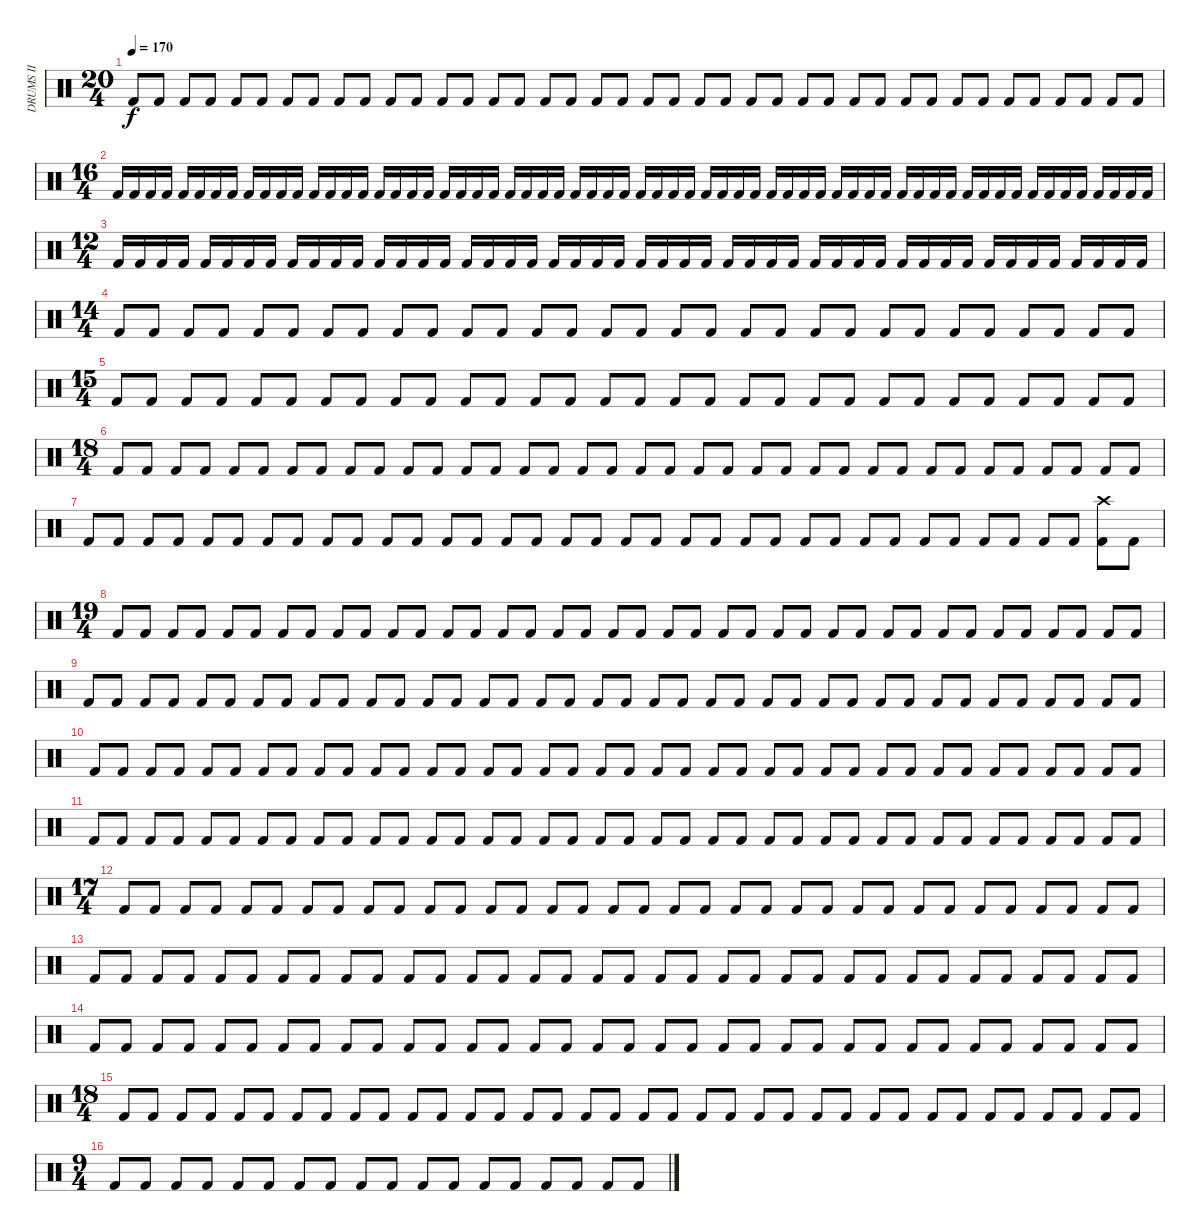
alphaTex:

\track ("DRUMS II" "DRUMS II") {instrument percussion}
\staff {score}
\articulation defaults
\ts (20 4)
\tempo 170
\clef neutral
\ks c "Kick (hit) 2".8{dy f} "Kick (hit) 2".8 "Kick (hit) 2".8 "Kick (hit) 2".8 "Kick (hit) 2".8 "Kick (hit) 2".8 "Kick (hit) 2".8 "Kick (hit) 2".8 "Kick (hit) 2".8 "Kick (hit) 2".8 "Kick (hit) 2".8 "Kick (hit) 2".8 "Kick (hit) 2".8 "Kick (hit) 2".8 "Kick (hit) 2".8 "Kick (hit) 2".8 "Kick (hit) 2".8 "Kick (hit) 2".8 "Kick (hit) 2".8 "Kick (hit) 2".8 "Kick (hit) 2".8 "Kick (hit) 2".8 "Kick (hit) 2".8 "Kick (hit) 2".8 "Kick (hit) 2".8 "Kick (hit) 2".8 "Kick (hit) 2".8 "Kick (hit) 2".8 "Kick (hit) 2".8 "Kick (hit) 2".8 "Kick (hit) 2".8 "Kick (hit) 2".8 "Kick (hit) 2".8 "Kick (hit) 2".8 "Kick (hit) 2".8 "Kick (hit) 2".8 "Kick (hit) 2".8 "Kick (hit) 2".8 "Kick (hit) 2".8 "Kick (hit) 2".8
|
\ts (16 4)
"Kick (hit) 2".16 "Kick (hit) 2".16 "Kick (hit) 2".16 "Kick (hit) 2".16 "Kick (hit) 2".16 "Kick (hit) 2".16 "Kick (hit) 2".16 "Kick (hit) 2".16 "Kick (hit) 2".16 "Kick (hit) 2".16 "Kick (hit) 2".16 "Kick (hit) 2".16 "Kick (hit) 2".16 "Kick (hit) 2".16 "Kick (hit) 2".16 "Kick (hit) 2".16 "Kick (hit) 2".16 "Kick (hit) 2".16 "Kick (hit) 2".16 "Kick (hit) 2".16 "Kick (hit) 2".16 "Kick (hit) 2".16 "Kick (hit) 2".16 "Kick (hit) 2".16 "Kick (hit) 2".16 "Kick (hit) 2".16 "Kick (hit) 2".16 "Kick (hit) 2".16 "Kick (hit) 2".16 "Kick (hit) 2".16 "Kick (hit) 2".16 "Kick (hit) 2".16 "Kick (hit) 2".16 "Kick (hit) 2".16 "Kick (hit) 2".16 "Kick (hit) 2".16 "Kick (hit) 2".16 "Kick (hit) 2".16 "Kick (hit) 2".16 "Kick (hit) 2".16 "Kick (hit) 2".16 "Kick (hit) 2".16 "Kick (hit) 2".16 "Kick (hit) 2".16 "Kick (hit) 2".16 "Kick (hit) 2".16 "Kick (hit) 2".16 "Kick (hit) 2".16 "Kick (hit) 2".16 "Kick (hit) 2".16 "Kick (hit) 2".16 "Kick (hit) 2".16 "Kick (hit) 2".16 "Kick (hit) 2".16 "Kick (hit) 2".16 "Kick (hit) 2".16 "Kick (hit) 2".16 "Kick (hit) 2".16 "Kick (hit) 2".16 "Kick (hit) 2".16 "Kick (hit) 2".16 "Kick (hit) 2".16 "Kick (hit) 2".16 "Kick (hit) 2".16 |
\ts (12 4)
"Kick (hit) 2".16 "Kick (hit) 2".16 "Kick (hit) 2".16 "Kick (hit) 2".16 "Kick (hit) 2".16 "Kick (hit) 2".16 "Kick (hit) 2".16 "Kick (hit) 2".16 "Kick (hit) 2".16 "Kick (hit) 2".16 "Kick (hit) 2".16 "Kick (hit) 2".16 "Kick (hit) 2".16 "Kick (hit) 2".16 "Kick (hit) 2".16 "Kick (hit) 2".16 "Kick (hit) 2".16 "Kick (hit) 2".16 "Kick (hit) 2".16 "Kick (hit) 2".16 "Kick (hit) 2".16 "Kick (hit) 2".16 "Kick (hit) 2".16 "Kick (hit) 2".16 "Kick (hit) 2".16 "Kick (hit) 2".16 "Kick (hit) 2".16 "Kick (hit) 2".16 "Kick (hit) 2".16 "Kick (hit) 2".16 "Kick (hit) 2".16 "Kick (hit) 2".16 "Kick (hit) 2".16 "Kick (hit) 2".16 "Kick (hit) 2".16 "Kick (hit) 2".16 "Kick (hit) 2".16 "Kick (hit) 2".16 "Kick (hit) 2".16 "Kick (hit) 2".16 "Kick (hit) 2".16 "Kick (hit) 2".16 "Kick (hit) 2".16 "Kick (hit) 2".16 "Kick (hit) 2".16 "Kick (hit) 2".16 "Kick (hit) 2".16 "Kick (hit) 2".16 |
\ts (14 4)
"Kick (hit) 2".8 "Kick (hit) 2".8 "Kick (hit) 2".8 "Kick (hit) 2".8 "Kick (hit) 2".8 "Kick (hit) 2".8 "Kick (hit) 2".8 "Kick (hit) 2".8 "Kick (hit) 2".8 "Kick (hit) 2".8 "Kick (hit) 2".8 "Kick (hit) 2".8 "Kick (hit) 2".8 "Kick (hit) 2".8 "Kick (hit) 2".8 "Kick (hit) 2".8 "Kick (hit) 2".8 "Kick (hit) 2".8 "Kick (hit) 2".8 "Kick (hit) 2".8 "Kick (hit) 2".8 "Kick (hit) 2".8 "Kick (hit) 2".8 "Kick (hit) 2".8 "Kick (hit) 2".8 "Kick (hit) 2".8 "Kick (hit) 2".8 "Kick (hit) 2".8 "Kick (hit) 2".8 "Kick (hit) 2".8 |
\ts (15 4)
"Kick (hit) 2".8 "Kick (hit) 2".8 "Kick (hit) 2".8 "Kick (hit) 2".8 "Kick (hit) 2".8 "Kick (hit) 2".8 "Kick (hit) 2".8 "Kick (hit) 2".8 "Kick (hit) 2".8 "Kick (hit) 2".8 "Kick (hit) 2".8 "Kick (hit) 2".8 "Kick (hit) 2".8 "Kick (hit) 2".8 "Kick (hit) 2".8 "Kick (hit) 2".8 "Kick (hit) 2".8 "Kick (hit) 2".8 "Kick (hit) 2".8 "Kick (hit) 2".8 "Kick (hit) 2".8 "Kick (hit) 2".8 "Kick (hit) 2".8 "Kick (hit) 2".8 "Kick (hit) 2".8 "Kick (hit) 2".8 "Kick (hit) 2".8 "Kick (hit) 2".8 "Kick (hit) 2".8 "Kick (hit) 2".8 |
\ts (18 4)
"Kick (hit) 2".8 "Kick (hit) 2".8 "Kick (hit) 2".8 "Kick (hit) 2".8 "Kick (hit) 2".8 "Kick (hit) 2".8 "Kick (hit) 2".8 "Kick (hit) 2".8 "Kick (hit) 2".8 "Kick (hit) 2".8 "Kick (hit) 2".8 "Kick (hit) 2".8 "Kick (hit) 2".8 "Kick (hit) 2".8 "Kick (hit) 2".8 "Kick (hit) 2".8 "Kick (hit) 2".8 "Kick (hit) 2".8 "Kick (hit) 2".8 "Kick (hit) 2".8 "Kick (hit) 2".8 "Kick (hit) 2".8 "Kick (hit) 2".8 "Kick (hit) 2".8 "Kick (hit) 2".8 "Kick (hit) 2".8 "Kick (hit) 2".8 "Kick (hit) 2".8 "Kick (hit) 2".8 "Kick (hit) 2".8 "Kick (hit) 2".8 "Kick (hit) 2".8 "Kick (hit) 2".8 "Kick (hit) 2".8 "Kick (hit) 2".8 "Kick (hit) 2".8 |
"Kick (hit) 2".8 "Kick (hit) 2".8 "Kick (hit) 2".8 "Kick (hit) 2".8 "Kick (hit) 2".8 "Kick (hit) 2".8 "Kick (hit) 2".8 "Kick (hit) 2".8 "Kick (hit) 2".8 "Kick (hit) 2".8 "Kick (hit) 2".8 "Kick (hit) 2".8 "Kick (hit) 2".8 "Kick (hit) 2".8 "Kick (hit) 2".8 "Kick (hit) 2".8 "Kick (hit) 2".8 "Kick (hit) 2".8 "Kick (hit) 2".8 "Kick (hit) 2".8 "Kick (hit) 2".8 "Kick (hit) 2".8 "Kick (hit) 2".8 "Kick (hit) 2".8 "Kick (hit) 2".8 "Kick (hit) 2".8 "Kick (hit) 2".8 "Kick (hit) 2".8 "Kick (hit) 2".8 "Kick (hit) 2".8 "Kick (hit) 2".8 "Kick (hit) 2".8 "Kick (hit) 2".8 "Kick (hit) 2".8 ("Crash high (hit)" "Kick (hit) 2").8 "Kick (hit) 2".8 |
\ts (19 4)
"Kick (hit) 2".8 "Kick (hit) 2".8 "Kick (hit) 2".8 "Kick (hit) 2".8 "Kick (hit) 2".8 "Kick (hit) 2".8 "Kick (hit) 2".8 "Kick (hit) 2".8 "Kick (hit) 2".8 "Kick (hit) 2".8 "Kick (hit) 2".8 "Kick (hit) 2".8 "Kick (hit) 2".8 "Kick (hit) 2".8 "Kick (hit) 2".8 "Kick (hit) 2".8 "Kick (hit) 2".8 "Kick (hit) 2".8 "Kick (hit) 2".8 "Kick (hit) 2".8 "Kick (hit) 2".8 "Kick (hit) 2".8 "Kick (hit) 2".8 "Kick (hit) 2".8 "Kick (hit) 2".8 "Kick (hit) 2".8 "Kick (hit) 2".8 "Kick (hit) 2".8 "Kick (hit) 2".8 "Kick (hit) 2".8 "Kick (hit) 2".8 "Kick (hit) 2".8 "Kick (hit) 2".8 "Kick (hit) 2".8 "Kick (hit) 2".8 "Kick (hit) 2".8 "Kick (hit) 2".8 "Kick (hit) 2".8 |
"Kick (hit) 2".8 "Kick (hit) 2".8 "Kick (hit) 2".8 "Kick (hit) 2".8 "Kick (hit) 2".8 "Kick (hit) 2".8 "Kick (hit) 2".8 "Kick (hit) 2".8 "Kick (hit) 2".8 "Kick (hit) 2".8 "Kick (hit) 2".8 "Kick (hit) 2".8 "Kick (hit) 2".8 "Kick (hit) 2".8 "Kick (hit) 2".8 "Kick (hit) 2".8 "Kick (hit) 2".8 "Kick (hit) 2".8 "Kick (hit) 2".8 "Kick (hit) 2".8 "Kick (hit) 2".8 "Kick (hit) 2".8 "Kick (hit) 2".8 "Kick (hit) 2".8 "Kick (hit) 2".8 "Kick (hit) 2".8 "Kick (hit) 2".8 "Kick (hit) 2".8 "Kick (hit) 2".8 "Kick (hit) 2".8 "Kick (hit) 2".8 "Kick (hit) 2".8 "Kick (hit) 2".8 "Kick (hit) 2".8 "Kick (hit) 2".8 "Kick (hit) 2".8 "Kick (hit) 2".8 "Kick (hit) 2".8 |
"Kick (hit) 2".8 "Kick (hit) 2".8 "Kick (hit) 2".8 "Kick (hit) 2".8 "Kick (hit) 2".8 "Kick (hit) 2".8 "Kick (hit) 2".8 "Kick (hit) 2".8 "Kick (hit) 2".8 "Kick (hit) 2".8 "Kick (hit) 2".8 "Kick (hit) 2".8 "Kick (hit) 2".8 "Kick (hit) 2".8 "Kick (hit) 2".8 "Kick (hit) 2".8 "Kick (hit) 2".8 "Kick (hit) 2".8 "Kick (hit) 2".8 "Kick (hit) 2".8 "Kick (hit) 2".8 "Kick (hit) 2".8 "Kick (hit) 2".8 "Kick (hit) 2".8 "Kick (hit) 2".8 "Kick (hit) 2".8 "Kick (hit) 2".8 "Kick (hit) 2".8 "Kick (hit) 2".8 "Kick (hit) 2".8 "Kick (hit) 2".8 "Kick (hit) 2".8 "Kick (hit) 2".8 "Kick (hit) 2".8 "Kick (hit) 2".8 "Kick (hit) 2".8 "Kick (hit) 2".8 "Kick (hit) 2".8 |
"Kick (hit) 2".8 "Kick (hit) 2".8 "Kick (hit) 2".8 "Kick (hit) 2".8 "Kick (hit) 2".8 "Kick (hit) 2".8 "Kick (hit) 2".8 "Kick (hit) 2".8 "Kick (hit) 2".8 "Kick (hit) 2".8 "Kick (hit) 2".8 "Kick (hit) 2".8 "Kick (hit) 2".8 "Kick (hit) 2".8 "Kick (hit) 2".8 "Kick (hit) 2".8 "Kick (hit) 2".8 "Kick (hit) 2".8 "Kick (hit) 2".8 "Kick (hit) 2".8 "Kick (hit) 2".8 "Kick (hit) 2".8 "Kick (hit) 2".8 "Kick (hit) 2".8 "Kick (hit) 2".8 "Kick (hit) 2".8 "Kick (hit) 2".8 "Kick (hit) 2".8 "Kick (hit) 2".8 "Kick (hit) 2".8 "Kick (hit) 2".8 "Kick (hit) 2".8 "Kick (hit) 2".8 "Kick (hit) 2".8 "Kick (hit) 2".8 "Kick (hit) 2".8 "Kick (hit) 2".8 "Kick (hit) 2".8 |
\ts (17 4)
"Kick (hit) 2".8 "Kick (hit) 2".8 "Kick (hit) 2".8 "Kick (hit) 2".8 "Kick (hit) 2".8 "Kick (hit) 2".8 "Kick (hit) 2".8 "Kick (hit) 2".8 "Kick (hit) 2".8 "Kick (hit) 2".8 "Kick (hit) 2".8 "Kick (hit) 2".8 "Kick (hit) 2".8 "Kick (hit) 2".8 "Kick (hit) 2".8 "Kick (hit) 2".8 "Kick (hit) 2".8 "Kick (hit) 2".8 "Kick (hit) 2".8 "Kick (hit) 2".8 "Kick (hit) 2".8 "Kick (hit) 2".8 "Kick (hit) 2".8 "Kick (hit) 2".8 "Kick (hit) 2".8 "Kick (hit) 2".8 "Kick (hit) 2".8 "Kick (hit) 2".8 "Kick (hit) 2".8 "Kick (hit) 2".8 "Kick (hit) 2".8 "Kick (hit) 2".8 "Kick (hit) 2".8 "Kick (hit) 2".8 |
"Kick (hit) 2".8 "Kick (hit) 2".8 "Kick (hit) 2".8 "Kick (hit) 2".8 "Kick (hit) 2".8 "Kick (hit) 2".8 "Kick (hit) 2".8 "Kick (hit) 2".8 "Kick (hit) 2".8 "Kick (hit) 2".8 "Kick (hit) 2".8 "Kick (hit) 2".8 "Kick (hit) 2".8 "Kick (hit) 2".8 "Kick (hit) 2".8 "Kick (hit) 2".8 "Kick (hit) 2".8 "Kick (hit) 2".8 "Kick (hit) 2".8 "Kick (hit) 2".8 "Kick (hit) 2".8 "Kick (hit) 2".8 "Kick (hit) 2".8 "Kick (hit) 2".8 "Kick (hit) 2".8 "Kick (hit) 2".8 "Kick (hit) 2".8 "Kick (hit) 2".8 "Kick (hit) 2".8 "Kick (hit) 2".8 "Kick (hit) 2".8 "Kick (hit) 2".8 "Kick (hit) 2".8 "Kick (hit) 2".8 |
"Kick (hit) 2".8 "Kick (hit) 2".8 "Kick (hit) 2".8 "Kick (hit) 2".8 "Kick (hit) 2".8 "Kick (hit) 2".8 "Kick (hit) 2".8 "Kick (hit) 2".8 "Kick (hit) 2".8 "Kick (hit) 2".8 "Kick (hit) 2".8 "Kick (hit) 2".8 "Kick (hit) 2".8 "Kick (hit) 2".8 "Kick (hit) 2".8 "Kick (hit) 2".8 "Kick (hit) 2".8 "Kick (hit) 2".8 "Kick (hit) 2".8 "Kick (hit) 2".8 "Kick (hit) 2".8 "Kick (hit) 2".8 "Kick (hit) 2".8 "Kick (hit) 2".8 "Kick (hit) 2".8 "Kick (hit) 2".8 "Kick (hit) 2".8 "Kick (hit) 2".8 "Kick (hit) 2".8 "Kick (hit) 2".8 "Kick (hit) 2".8 "Kick (hit) 2".8 "Kick (hit) 2".8 "Kick (hit) 2".8 |
\ts (18 4)
"Kick (hit) 2".8 "Kick (hit) 2".8 "Kick (hit) 2".8 "Kick (hit) 2".8 "Kick (hit) 2".8 "Kick (hit) 2".8 "Kick (hit) 2".8 "Kick (hit) 2".8 "Kick (hit) 2".8 "Kick (hit) 2".8 "Kick (hit) 2".8 "Kick (hit) 2".8 "Kick (hit) 2".8 "Kick (hit) 2".8 "Kick (hit) 2".8 "Kick (hit) 2".8 "Kick (hit) 2".8 "Kick (hit) 2".8 "Kick (hit) 2".8 "Kick (hit) 2".8 "Kick (hit) 2".8 "Kick (hit) 2".8 "Kick (hit) 2".8 "Kick (hit) 2".8 "Kick (hit) 2".8 "Kick (hit) 2".8 "Kick (hit) 2".8 "Kick (hit) 2".8 "Kick (hit) 2".8 "Kick (hit) 2".8 "Kick (hit) 2".8 "Kick (hit) 2".8 "Kick (hit) 2".8 "Kick (hit) 2".8 "Kick (hit) 2".8 "Kick (hit) 2".8 |
\ts (9 4)
"Kick (hit) 2".8 "Kick (hit) 2".8 "Kick (hit) 2".8 "Kick (hit) 2".8 "Kick (hit) 2".8 "Kick (hit) 2".8 "Kick (hit) 2".8 "Kick (hit) 2".8 "Kick (hit) 2".8 "Kick (hit) 2".8 "Kick (hit) 2".8 "Kick (hit) 2".8 "Kick (hit) 2".8 "Kick (hit) 2".8 "Kick (hit) 2".8 "Kick (hit) 2".8 "Kick (hit) 2".8 "Kick (hit) 2".8
